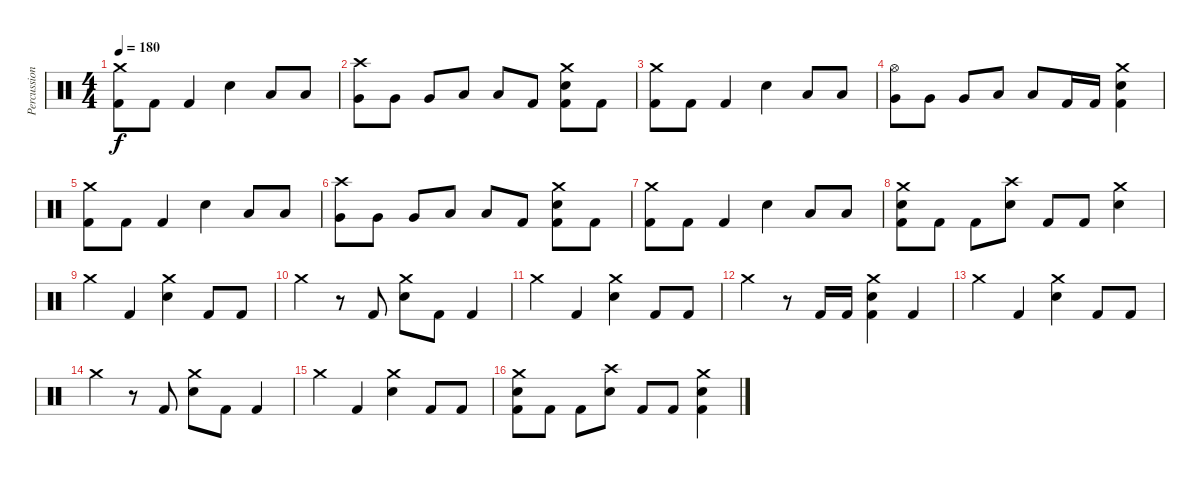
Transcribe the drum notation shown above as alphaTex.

\track ("Percussion" "Percussion") {instrument percussion}
\staff {score}
\articulation defaults
\ts (4 4)
\tempo 180
\clef neutral
\ks c
("Crash medium (hit)" "Kick (hit) 2").8{dy f} "Kick (hit) 2".8 "Kick (hit) 2".4 "Electric Snare (hit)".4 "Low Tom (hit)".8 "Low Tom (hit)".8 |
("Crash high (hit)" "Very Low Tom (hit)").8 "Very Low Tom (hit)".8 "Very Low Tom (hit)".8 "Low Floor Tom (hit)".8 "Low Floor Tom (hit)".8 "Kick (hit) 2".8 ("Electric Snare (hit)" "Crash medium (hit)" "Kick (hit) 2").8 "Kick (hit) 2".8 |
("Crash medium (hit)" "Kick (hit) 2").8 "Kick (hit) 2".8 "Kick (hit) 2".4 "Electric Snare (hit)".4 "Low Tom (hit)".8 "Low Tom (hit)".8 |
("Hi-Hat (open)" "Very Low Tom (hit)").8 "Very Low Tom (hit)".8 "Very Low Tom (hit)".8 "Low Floor Tom (hit)".8 "Low Floor Tom (hit)".8 "Kick (hit) 2".16 "Kick (hit) 2".16 ("Electric Snare (hit)" "Crash medium (hit)" "Kick (hit) 2").4 |
("Crash medium (hit)" "Kick (hit) 2").8 "Kick (hit) 2".8 "Kick (hit) 2".4 "Electric Snare (hit)".4 "Low Tom (hit)".8 "Low Tom (hit)".8 |
("Crash high (hit)" "Very Low Tom (hit)").8 "Very Low Tom (hit)".8 "Very Low Tom (hit)".8 "Low Floor Tom (hit)".8 "Low Floor Tom (hit)".8 "Kick (hit) 2".8 ("Electric Snare (hit)" "Crash medium (hit)" "Kick (hit) 2").8 "Kick (hit) 2".8 |
("Crash medium (hit)" "Kick (hit) 2").8 "Kick (hit) 2".8 "Kick (hit) 2".4 "Electric Snare (hit)".4 "Low Tom (hit)".8 "Low Tom (hit)".8 |
("Crash medium (hit)" "Electric Snare (hit)" "Kick (hit) 2").8 "Kick (hit) 2".8 "Kick (hit) 2".8 ("Crash high (hit)" "Electric Snare (hit)").8 "Kick (hit) 2".8 "Kick (hit) 2".8 ("Crash medium (hit)" "Electric Snare (hit)").4 |
"Crash medium (hit)".4 "Kick (hit) 2".4 ("Crash medium (hit)" "Electric Snare (hit)").4 "Kick (hit) 2".8 "Kick (hit) 2".8 |
"Crash medium (hit)".4 r.8 "Kick (hit) 2".8 ("Crash medium (hit)" "Electric Snare (hit)").8 "Kick (hit) 2".8 "Kick (hit) 2".4 |
"Crash medium (hit)".4 "Kick (hit) 2".4 ("Crash medium (hit)" "Electric Snare (hit)").4 "Kick (hit) 2".8 "Kick (hit) 2".8 |
"Crash medium (hit)".4 r.8 "Kick (hit) 2".16 "Kick (hit) 2".16 ("Crash medium (hit)" "Electric Snare (hit)" "Kick (hit) 2").4 "Kick (hit) 2".4 |
"Crash medium (hit)".4 "Kick (hit) 2".4 ("Crash medium (hit)" "Electric Snare (hit)").4 "Kick (hit) 2".8 "Kick (hit) 2".8 |
"Crash medium (hit)".4 r.8 "Kick (hit) 2".8 ("Crash medium (hit)" "Electric Snare (hit)").8 "Kick (hit) 2".8 "Kick (hit) 2".4 |
"Crash medium (hit)".4 "Kick (hit) 2".4 ("Crash medium (hit)" "Electric Snare (hit)").4 "Kick (hit) 2".8 "Kick (hit) 2".8 |
("Crash medium (hit)" "Electric Snare (hit)" "Kick (hit) 2").8 "Kick (hit) 2".8 "Kick (hit) 2".8 ("Crash high (hit)" "Electric Snare (hit)").8 "Kick (hit) 2".8 "Kick (hit) 2".8 ("Crash medium (hit)" "Electric Snare (hit)" "Kick (hit) 2").4
